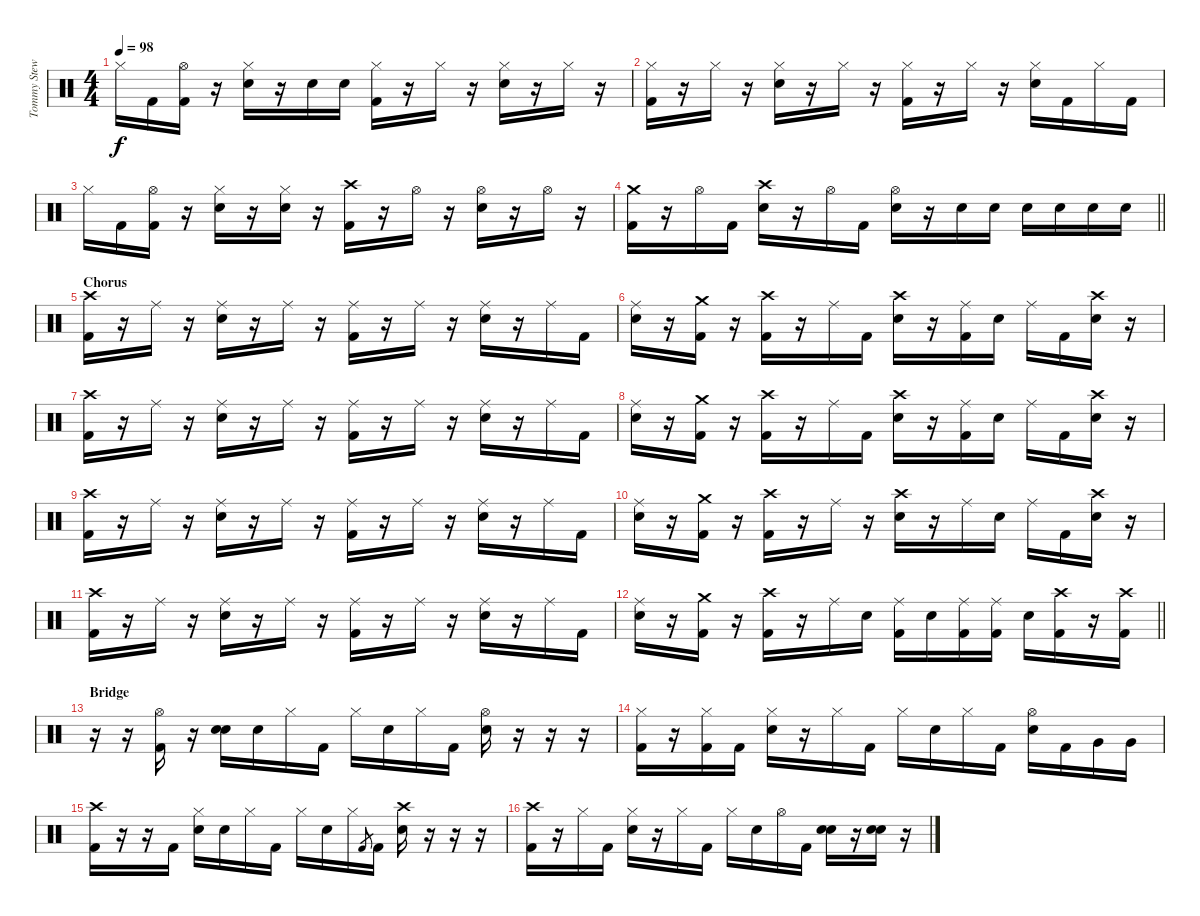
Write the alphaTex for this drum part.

\track ("Tommy Stewart - Drums" "Tommy Stew") {instrument percussion}
\staff {score}
\articulation defaults
\ts (4 4)
\tempo 98
\clef neutral
\ks c "Hi-Hat (closed)".16{dy f} "Kick (hit) 2".16
("Hi-Hat (open)" "Kick (hit) 2").16 r.16 ("Hi-Hat (closed)" "Snare (hit) 2").16 r.16 "Snare (hit) 2".16 "Snare (hit) 2".16 ("Hi-Hat (closed)" "Kick (hit) 2").16 r.16 "Hi-Hat (closed)".16 r.16 ("Hi-Hat (closed)" "Snare (hit) 2").16 r.16 "Hi-Hat (closed)".16 r.16 |
("Hi-Hat (closed)" "Kick (hit) 2").16 r.16 "Hi-Hat (closed)".16 r.16 ("Hi-Hat (closed)" "Snare (hit) 2").16 r.16 "Hi-Hat (closed)".16 r.16 ("Hi-Hat (closed)" "Kick (hit) 2").16 r.16 "Hi-Hat (closed)".16 r.16 ("Hi-Hat (closed)" "Snare (hit) 2").16 "Kick (hit) 2".16 "Hi-Hat (closed)".16 "Kick (hit) 2".16 |
"Hi-Hat (closed)".16 "Kick (hit) 2".16 ("Hi-Hat (open)" "Kick (hit) 2").16 r.16 ("Hi-Hat (closed)" "Snare (hit) 2").16 r.16 ("Hi-Hat (closed)" "Snare (hit) 2").16 r.16 ("Crash high (hit)" "Kick (hit) 2").16 r.16 "Hi-Hat (open)".16 r.16 ("Hi-Hat (open)" "Snare (hit) 2").16 r.16 "Hi-Hat (open)".16 r.16 |
\barLineRight lightlight
("Crash medium (hit)" "Kick (hit) 2").16 r.16 "Hi-Hat (open)".16 "Kick (hit) 2".16 ("Crash high (hit)" "Snare (hit) 2").16 r.16 "Hi-Hat (open)".16 "Kick (hit) 2".16 ("Hi-Hat (open)" "Snare (hit) 2").16 r.16 "Snare (hit) 2".16 "Snare (hit) 2".16 "Snare (hit) 2".16 "Snare (hit) 2".16 "Snare (hit) 2".16 "Snare (hit) 2".16 |
\section ("" "Chorus")
("Crash high (hit)" "Kick (hit) 2").16 r.16 "Ride (middle)".16 r.16 ("Ride (middle)" "Snare (hit) 2").16 r.16 "Ride (middle)".16 r.16 ("Ride (middle)" "Kick (hit) 2").16 r.16 "Ride (middle)".16 r.16 ("Ride (middle)" "Snare (hit) 2").16 r.16 "Ride (middle)".16 "Kick (hit) 2".16 |
("Ride (middle)" "Snare (hit) 2").16 r.16 ("Crash medium (hit)" "Kick (hit) 2").16 r.16 ("Crash high (hit)" "Kick (hit) 2").16 r.16 "Ride (middle)".16 "Kick (hit) 2".16 ("Crash high (hit)" "Snare (hit) 2").16 r.16 ("Ride (middle)" "Kick (hit) 2").16 "Snare (hit) 2".16 "Ride (middle)".16 "Kick (hit) 2".16 ("Crash high (hit)" "Snare (hit) 2").16 r.16 |
("Crash high (hit)" "Kick (hit) 2").16 r.16 "Ride (middle)".16 r.16 ("Ride (middle)" "Snare (hit) 2").16 r.16 "Ride (middle)".16 r.16 ("Ride (middle)" "Kick (hit) 2").16 r.16 "Ride (middle)".16 r.16 ("Ride (middle)" "Snare (hit) 2").16 r.16 "Ride (middle)".16 "Kick (hit) 2".16 |
("Ride (middle)" "Snare (hit) 2").16 r.16 ("Crash medium (hit)" "Kick (hit) 2").16 r.16 ("Crash high (hit)" "Kick (hit) 2").16 r.16 "Ride (middle)".16 "Kick (hit) 2".16 ("Crash high (hit)" "Snare (hit) 2").16 r.16 ("Ride (middle)" "Kick (hit) 2").16 "Snare (hit) 2".16 "Ride (middle)".16 "Kick (hit) 2".16 ("Crash high (hit)" "Snare (hit) 2").16 r.16 |
("Crash high (hit)" "Kick (hit) 2").16 r.16 "Ride (middle)".16 r.16 ("Ride (middle)" "Snare (hit) 2").16 r.16 "Ride (middle)".16 r.16 ("Ride (middle)" "Kick (hit) 2").16 r.16 "Ride (middle)".16 r.16 ("Ride (middle)" "Snare (hit) 2").16 r.16 "Ride (middle)".16 "Kick (hit) 2".16 |
("Ride (middle)" "Snare (hit) 2").16 r.16 ("Crash medium (hit)" "Kick (hit) 2").16 r.16 ("Crash high (hit)" "Kick (hit) 2").16 r.16 "Ride (middle)".16 r.16 ("Crash high (hit)" "Snare (hit) 2").16 r.16 "Ride (middle)".16 "Snare (hit) 2".16 "Ride (middle)".16 "Kick (hit) 2".16 ("Crash high (hit)" "Snare (hit) 2").16 r.16 |
("Crash high (hit)" "Kick (hit) 2").16 r.16 "Ride (middle)".16 r.16 ("Ride (middle)" "Snare (hit) 2").16 r.16 "Ride (middle)".16 r.16 ("Ride (middle)" "Kick (hit) 2").16 r.16 "Ride (middle)".16 r.16 ("Ride (middle)" "Snare (hit) 2").16 r.16 "Ride (middle)".16 "Kick (hit) 2".16 |
\barLineRight lightlight
("Ride (middle)" "Snare (hit) 2").16 r.16 ("Crash medium (hit)" "Kick (hit) 2").16 r.16 ("Crash high (hit)" "Kick (hit) 2").16 r.16 "Ride (middle)".16 "Snare (hit) 2".16 ("Ride (middle)" "Kick (hit) 2").16 "Snare (hit) 2".16 ("Ride (middle)" "Kick (hit) 2").16 ("Ride (middle)" "Kick (hit) 2").16 "Snare (hit) 2".16 ("Crash high (hit)" "Kick (hit) 2").16 r.16 ("Crash high (hit)" "Kick (hit) 2").16 |
\section ("" "Bridge")
r.16 r.16 ("Hi-Hat (open)" "Kick (hit) 2").16 r.16 ("Snare (hit) 2" "Snare (hit) 2").16 "Snare (hit) 2".16 "Hi-Hat (closed)".16 "Kick (hit) 2".16 "Hi-Hat (closed)".16 "Snare (hit) 2".16 "Hi-Hat (closed)".16 "Kick (hit) 2".16 ("Hi-Hat (open)" "Snare (hit) 2").16 r.16 r.16 r.16 |
("Hi-Hat (closed)" "Kick (hit) 2").16 r.16 ("Hi-Hat (closed)" "Kick (hit) 2").16 "Kick (hit) 2".16 ("Hi-Hat (closed)" "Snare (hit) 2").16 r.16 "Hi-Hat (closed)".16 "Kick (hit) 2".16 "Hi-Hat (closed)".16 "Snare (hit) 2".16 "Hi-Hat (closed)".16 "Kick (hit) 2".16 ("Hi-Hat (open)" "Snare (hit) 2").16 "Kick (hit) 2".16 "Very Low Tom (hit)".16 "Very Low Tom (hit)".16 |
("Crash high (hit)" "Kick (hit) 2").16 r.16 r.16 "Kick (hit) 2".16 ("Hi-Hat (closed)" "Snare (hit) 2").16 "Snare (hit) 2".16 "Hi-Hat (closed)".16 "Kick (hit) 2".16 "Hi-Hat (closed)".16 "Snare (hit) 2".16 "Hi-Hat (closed)".16 "Kick (hit) 2".8{gr} "Kick (hit) 2".16 ("Crash high (hit)" "Snare (hit) 2").16 r.16 r.16 r.16 |
("Crash high (hit)" "Kick (hit) 2").16 r.16 "Hi-Hat (closed)".16 "Kick (hit) 2".16 ("Hi-Hat (closed)" "Snare (hit) 2").16 r.16 "Hi-Hat (closed)".16 "Kick (hit) 2".16 "Hi-Hat (closed)".16 "Snare (hit) 2".16 "Hi-Hat (open)".16 "Kick (hit) 2".16 ("Snare (hit) 2" "Snare (hit) 2").16 r.16 ("Snare (hit) 2" "Snare (hit) 2").16 r.16
